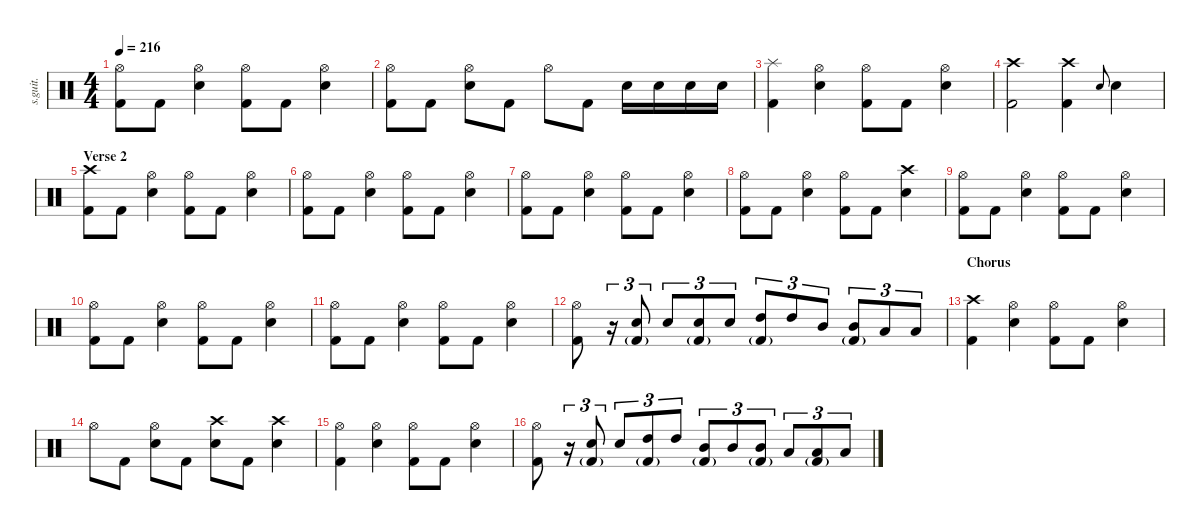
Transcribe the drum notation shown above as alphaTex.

\defaultSystemsLayout 4
\hideDynamics
\bracketExtendMode nobrackets
\track ("Jesus Bonehead | Drums" "s.guit.") {instrument percussion}
\staff {score}
\articulation defaults
\ts (4 4)
\tempo 216
\clef neutral
\ks c
("Hi-Hat (open)" "Kick (hit) 2").8{dy f} "Kick (hit) 2".8 ("Hi-Hat (open)" "Snare (hit) 2").4 ("Hi-Hat (open)" "Kick (hit) 2").8 "Kick (hit) 2".8 ("Hi-Hat (open)" "Snare (hit) 2").4 |
("Hi-Hat (open)" "Kick (hit) 2").8 "Kick (hit) 2".8 ("Hi-Hat (open)" "Snare (hit) 2").8 "Kick (hit) 2".8 "Hi-Hat (open)".8 "Kick (hit) 2".8 "Snare (hit) 2".16 "Snare (hit) 2".16 "Snare (hit) 2".16 "Snare (hit) 2".16 |
("Splash (hit)" "Kick (hit) 2").4 ("Hi-Hat (open)" "Snare (hit) 2").4 ("Hi-Hat (open)" "Kick (hit) 2").8 "Kick (hit) 2".8 ("Hi-Hat (open)" "Snare (hit) 2").4 |
("Crash high (hit)" "Kick (hit) 2").2 ("Crash high (hit)" "Kick (hit) 2").4 "Snare (hit) 2".8{gr onbeat} "Snare (hit) 2".4 |
\section ("" "Verse 2")
("Crash high (hit)" "Kick (hit) 2").8 "Kick (hit) 2".8 ("Hi-Hat (open)" "Snare (hit) 2").4 ("Hi-Hat (open)" "Kick (hit) 2").8 "Kick (hit) 2".8 ("Hi-Hat (open)" "Snare (hit) 2").4 |
("Hi-Hat (open)" "Kick (hit) 2").8 "Kick (hit) 2".8 ("Hi-Hat (open)" "Snare (hit) 2").4 ("Hi-Hat (open)" "Kick (hit) 2").8 "Kick (hit) 2".8 ("Hi-Hat (open)" "Snare (hit) 2").4 |
("Hi-Hat (open)" "Kick (hit) 2").8 "Kick (hit) 2".8 ("Hi-Hat (open)" "Snare (hit) 2").4 ("Hi-Hat (open)" "Kick (hit) 2").8 "Kick (hit) 2".8 ("Hi-Hat (open)" "Snare (hit) 2").4 |
("Hi-Hat (open)" "Kick (hit) 2").8 "Kick (hit) 2".8 ("Hi-Hat (open)" "Snare (hit) 2").4 ("Hi-Hat (open)" "Kick (hit) 2").8 "Kick (hit) 2".8 ("Crash high (hit)" "Snare (hit) 2").4 |
("Hi-Hat (open)" "Kick (hit) 2").8 "Kick (hit) 2".8 ("Hi-Hat (open)" "Snare (hit) 2").4 ("Hi-Hat (open)" "Kick (hit) 2").8 "Kick (hit) 2".8 ("Hi-Hat (open)" "Snare (hit) 2").4 |
("Hi-Hat (open)" "Kick (hit) 2").8 "Kick (hit) 2".8 ("Hi-Hat (open)" "Snare (hit) 2").4 ("Hi-Hat (open)" "Kick (hit) 2").8 "Kick (hit) 2".8 ("Hi-Hat (open)" "Snare (hit) 2").4 |
("Hi-Hat (open)" "Kick (hit) 2").8 "Kick (hit) 2".8 ("Hi-Hat (open)" "Snare (hit) 2").4 ("Hi-Hat (open)" "Kick (hit) 2").8 "Kick (hit) 2".8 ("Hi-Hat (open)" "Snare (hit) 2").4 |
("Hi-Hat (open)" "Kick (hit) 2").8 r.16{tu (3 2)} ("Snare (hit) 2" "Kick (hit) 2"{g}).8{tu (3 2)} "Snare (hit) 2".8{tu (3 2)} ("Snare (hit) 2" "Kick (hit) 2"{g}).8{tu (3 2)} "Snare (hit) 2".8{tu (3 2)} ("High Tom (hit)" "Kick (hit) 2"{g}).8{tu (3 2)} "High Tom (hit)".8{tu (3 2)} "Mid Tom (hit)".8{tu (3 2)} ("Mid Tom (hit)" "Kick (hit) 2"{g}).8{tu (3 2)} "Low Floor Tom (hit)".8{tu (3 2)} "Low Floor Tom (hit)".8{tu (3 2)} |
\section ("" "Chorus")
("Crash high (hit)" "Kick (hit) 2").4 ("Hi-Hat (open)" "Snare (hit) 2").4 ("Hi-Hat (open)" "Kick (hit) 2").8 "Kick (hit) 2".8 ("Hi-Hat (open)" "Snare (hit) 2").4 |
"Hi-Hat (open)".8 "Kick (hit) 2".8 ("Hi-Hat (open)" "Snare (hit) 2").8 "Kick (hit) 2".8 ("Crash high (hit)" "Snare (hit) 2").8 "Kick (hit) 2".8 ("Crash high (hit)" "Snare (hit) 2").4 |
("Hi-Hat (open)" "Kick (hit) 2").4 ("Hi-Hat (open)" "Snare (hit) 2").4 ("Hi-Hat (open)" "Kick (hit) 2").8 "Kick (hit) 2".8 ("Hi-Hat (open)" "Snare (hit) 2").4 |
("Hi-Hat (open)" "Kick (hit) 2").8 r.16{tu (3 2)} ("Snare (hit) 2" "Kick (hit) 2"{g}).8{tu (3 2)} "Snare (hit) 2".8{tu (3 2)} ("High Tom (hit)" "Kick (hit) 2"{g}).8{tu (3 2)} "High Tom (hit)".8{tu (3 2)} ("Mid Tom (hit)" "Kick (hit) 2"{g}).8{tu (3 2)} "Mid Tom (hit)".8{tu (3 2)} ("Mid Tom (hit)" "Kick (hit) 2"{g}).8{tu (3 2)} "Low Floor Tom (hit)".8{tu (3 2)} ("Low Floor Tom (hit)" "Kick (hit) 2"{g}).8{tu (3 2)} "Low Floor Tom (hit)".8{tu (3 2)}
